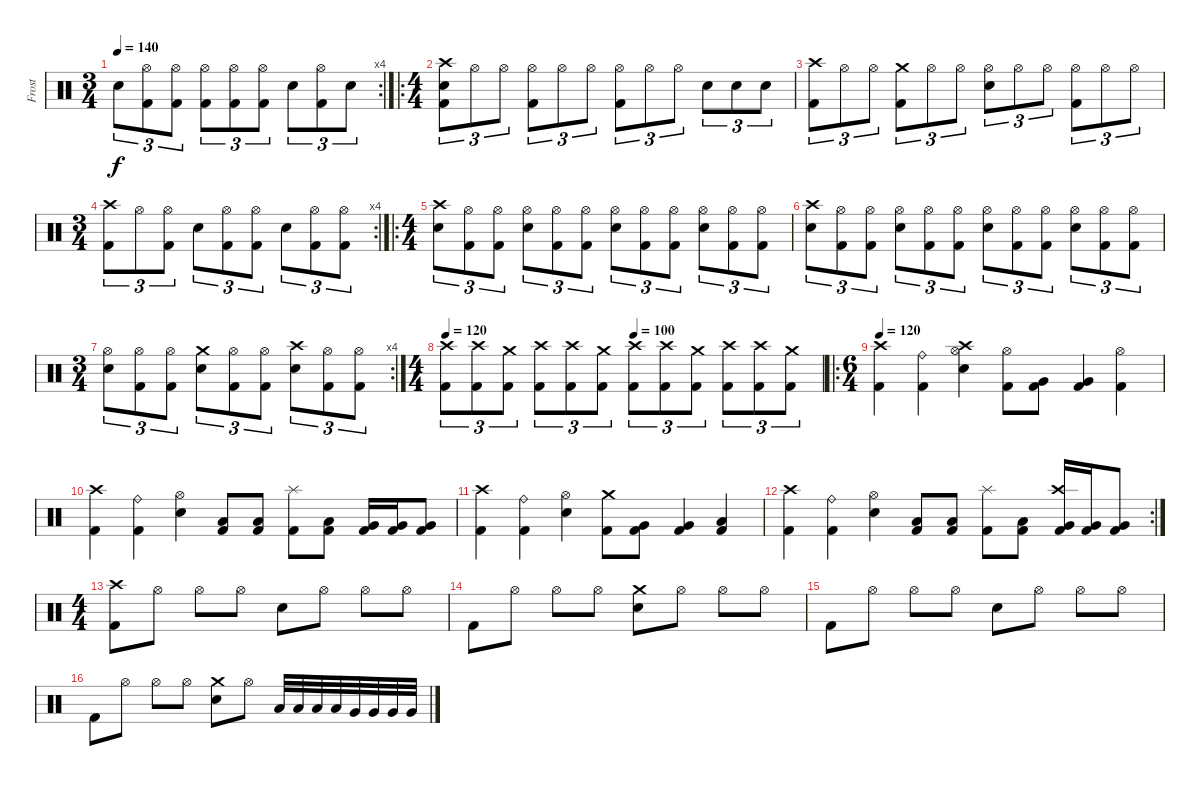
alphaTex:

\track ("Frost" "Frost") {instrument percussion}
\staff {score}
\articulation defaults
\rc 4
\ts (3 4)
\tempo 140
\clef neutral
\ks c "Snare (hit) 2".8{tu (3 2) dy f}
("Hi-Hat (open)" "Kick (hit) 2").8{tu (3 2)} ("Hi-Hat (open)" "Kick (hit) 2").8{tu (3 2)} ("Hi-Hat (open)" "Kick (hit) 2").8{tu (3 2)} ("Hi-Hat (open)" "Kick (hit) 2").8{tu (3 2)} ("Hi-Hat (open)" "Kick (hit) 2").8{tu (3 2)} "Snare (hit) 2".8{tu (3 2)} ("Hi-Hat (open)" "Kick (hit) 2").8{tu (3 2)} "Snare (hit) 2".8{tu (3 2)} |
\ro
\ts (4 4)
("Crash high (hit)" "Snare (hit) 2" "Kick (hit) 2").8{tu (3 2)} "Hi-Hat (open)".8{tu (3 2)} "Hi-Hat (open)".8{tu (3 2)} ("Hi-Hat (open)" "Kick (hit) 2").8{tu (3 2)} "Hi-Hat (open)".8{tu (3 2)} "Hi-Hat (open)".8{tu (3 2)} ("Hi-Hat (open)" "Kick (hit) 2").8{tu (3 2)} "Hi-Hat (open)".8{tu (3 2)} "Hi-Hat (open)".8{tu (3 2)} "Snare (hit) 2".8{tu (3 2)} "Snare (hit) 2".8{tu (3 2)} "Snare (hit) 2".8{tu (3 2)} |
("Crash high (hit)" "Kick (hit) 2").8{tu (3 2)} "Hi-Hat (open)".8{tu (3 2)} "Hi-Hat (open)".8{tu (3 2)} ("Crash medium (hit)" "Kick (hit) 2").8{tu (3 2)} "Hi-Hat (open)".8{tu (3 2)} "Hi-Hat (open)".8{tu (3 2)} ("Hi-Hat (open)" "Snare (hit) 2").8{tu (3 2)} "Hi-Hat (open)".8{tu (3 2)} "Hi-Hat (open)".8{tu (3 2)} ("Hi-Hat (open)" "Kick (hit) 2").8{tu (3 2)} "Hi-Hat (open)".8{tu (3 2)} "Hi-Hat (open)".8{tu (3 2)} |
\rc 4
\ts (3 4)
("Crash high (hit)" "Kick (hit) 2").8{tu (3 2)} "Hi-Hat (open)".8{tu (3 2)} ("Hi-Hat (open)" "Kick (hit) 2").8{tu (3 2)} "Snare (hit) 2".8{tu (3 2)} ("Hi-Hat (open)" "Kick (hit) 2").8{tu (3 2)} ("Hi-Hat (open)" "Kick (hit) 2").8{tu (3 2)} "Snare (hit) 2".8{tu (3 2)} ("Hi-Hat (open)" "Kick (hit) 2").8{tu (3 2)} ("Hi-Hat (open)" "Kick (hit) 2").8{tu (3 2)} |
\ro
\ts (4 4)
("Crash high (hit)" "Snare (hit) 2").8{tu (3 2)} ("Hi-Hat (open)" "Kick (hit) 2").8{tu (3 2)} ("Hi-Hat (open)" "Kick (hit) 2").8{tu (3 2)} ("Hi-Hat (open)" "Snare (hit) 2").8{tu (3 2)} ("Hi-Hat (open)" "Kick (hit) 2").8{tu (3 2)} ("Hi-Hat (open)" "Kick (hit) 2").8{tu (3 2)} ("Hi-Hat (open)" "Snare (hit) 2").8{tu (3 2)} ("Hi-Hat (open)" "Kick (hit) 2").8{tu (3 2)} ("Hi-Hat (open)" "Kick (hit) 2").8{tu (3 2)} ("Hi-Hat (open)" "Snare (hit) 2").8{tu (3 2)} ("Hi-Hat (open)" "Kick (hit) 2").8{tu (3 2)} ("Hi-Hat (open)" "Kick (hit) 2").8{tu (3 2)} |
("Crash high (hit)" "Snare (hit) 2").8{tu (3 2)} ("Hi-Hat (open)" "Kick (hit) 2").8{tu (3 2)} ("Hi-Hat (open)" "Kick (hit) 2").8{tu (3 2)} ("Hi-Hat (open)" "Snare (hit) 2").8{tu (3 2)} ("Hi-Hat (open)" "Kick (hit) 2").8{tu (3 2)} ("Hi-Hat (open)" "Kick (hit) 2").8{tu (3 2)} ("Hi-Hat (open)" "Snare (hit) 2").8{tu (3 2)} ("Hi-Hat (open)" "Kick (hit) 2").8{tu (3 2)} ("Hi-Hat (open)" "Kick (hit) 2").8{tu (3 2)} ("Hi-Hat (open)" "Snare (hit) 2").8{tu (3 2)} ("Hi-Hat (open)" "Kick (hit) 2").8{tu (3 2)} ("Hi-Hat (open)" "Kick (hit) 2").8{tu (3 2)} |
\rc 4
\ts (3 4)
("Hi-Hat (open)" "Snare (hit) 2").8{tu (3 2)} ("Hi-Hat (open)" "Kick (hit) 2").8{tu (3 2)} ("Hi-Hat (open)" "Kick (hit) 2").8{tu (3 2)} ("Crash medium (hit)" "Snare (hit) 2").8{tu (3 2)} ("Hi-Hat (open)" "Kick (hit) 2").8{tu (3 2)} ("Hi-Hat (open)" "Kick (hit) 2").8{tu (3 2)} ("Crash high (hit)" "Snare (hit) 2").8{tu (3 2)} ("Hi-Hat (open)" "Kick (hit) 2").8{tu (3 2)} ("Hi-Hat (open)" "Kick (hit) 2").8{tu (3 2)} |
\ts (4 4)
\tempo 120
\tempo (100 0.5)
("Crash high (hit)" "Kick (hit) 2").8{tu (3 2)} ("Crash high (hit)" "Kick (hit) 2").8{tu (3 2)} ("Crash medium (hit)" "Kick (hit) 2").8{tu (3 2)} ("Crash high (hit)" "Kick (hit) 2").8{tu (3 2)} ("Crash high (hit)" "Kick (hit) 2").8{tu (3 2)} ("Crash medium (hit)" "Kick (hit) 2").8{tu (3 2)} ("Crash high (hit)" "Kick (hit) 2").8{tu (3 2)} ("Crash high (hit)" "Kick (hit) 2").8{tu (3 2)} ("Crash medium (hit)" "Kick (hit) 2").8{tu (3 2)} ("Crash high (hit)" "Kick (hit) 2").8{tu (3 2)} ("Crash high (hit)" "Kick (hit) 2").8{tu (3 2)} ("Crash medium (hit)" "Kick (hit) 2").8{tu (3 2)} |
\ro
\ts (6 4)
\tempo 120
("Crash high (hit)" "Kick (hit) 2").4 ("Ride (bell)" "Kick (hit) 2").4 ("Crash high (hit)" "Hi-Hat (open)" "Snare (hit) 2").4 ("Hi-Hat (open)" "Kick (hit) 2").8 ("Very Low Tom (hit)" "Kick (hit) 2").8 ("Very Low Tom (hit)" "Kick (hit) 2").4 ("Hi-Hat (open)" "Kick (hit) 2").4 |
("Crash high (hit)" "Kick (hit) 2").4 ("Ride (bell)" "Kick (hit) 2").4 ("Hi-Hat (open)" "Snare (hit) 2").4 ("Low Tom (hit)" "Kick (hit) 2").8 ("Low Tom (hit)" "Kick (hit) 2").8 ("Splash (hit)" "Kick (hit) 2").8 ("Low Tom (hit)" "Kick (hit) 2").8 ("Very Low Tom (hit)" "Kick (hit) 2").16 ("Very Low Tom (hit)" "Kick (hit) 2").16 ("Very Low Tom (hit)" "Kick (hit) 2").8 |
("Crash high (hit)" "Kick (hit) 2").4 ("Ride (bell)" "Kick (hit) 2").4 ("Hi-Hat (open)" "Snare (hit) 2").4 ("Crash medium (hit)" "Kick (hit) 2").8 ("Very Low Tom (hit)" "Kick (hit) 2").8 ("Very Low Tom (hit)" "Kick (hit) 2").4 ("Low Floor Tom (hit)" "Kick (hit) 2").4 |
\rc 2
("Crash high (hit)" "Kick (hit) 2").4 ("Ride (bell)" "Kick (hit) 2").4 ("Hi-Hat (open)" "Snare (hit) 2").4 ("Low Tom (hit)" "Kick (hit) 2").8 ("Low Tom (hit)" "Kick (hit) 2").8 ("Splash (hit)" "Kick (hit) 2").8 ("Low Tom (hit)" "Kick (hit) 2").8 ("Crash high (hit)" "Very Low Tom (hit)" "Kick (hit) 2").16 ("Very Low Tom (hit)" "Kick (hit) 2").16 ("Very Low Tom (hit)" "Kick (hit) 2").8 |
\ts (4 4)
("Crash high (hit)" "Kick (hit) 2").8 "Hi-Hat (open)".8 "Hi-Hat (open)".8 "Hi-Hat (open)".8 "Snare (hit) 2".8 "Hi-Hat (open)".8 "Hi-Hat (open)".8 "Hi-Hat (open)".8 |
"Kick (hit) 2".8 "Hi-Hat (open)".8 "Hi-Hat (open)".8 "Hi-Hat (open)".8 ("Crash medium (hit)" "Snare (hit) 2").8 "Hi-Hat (open)".8 "Hi-Hat (open)".8 "Hi-Hat (open)".8 |
"Kick (hit) 2".8 "Hi-Hat (open)".8 "Hi-Hat (open)".8 "Hi-Hat (open)".8 "Snare (hit) 2".8 "Hi-Hat (open)".8 "Hi-Hat (open)".8 "Hi-Hat (open)".8 |
"Kick (hit) 2".8 "Hi-Hat (open)".8 "Hi-Hat (open)".8 "Hi-Hat (open)".8 ("Crash medium (hit)" "Snare (hit) 2").8 "Hi-Hat (open)".8 "Low Tom (hit)".32 "Low Tom (hit)".32 "Low Tom (hit)".32 "Low Tom (hit)".32 "Very Low Tom (hit)".32 "Very Low Tom (hit)".32 "Very Low Tom (hit)".32 "Very Low Tom (hit)".32
